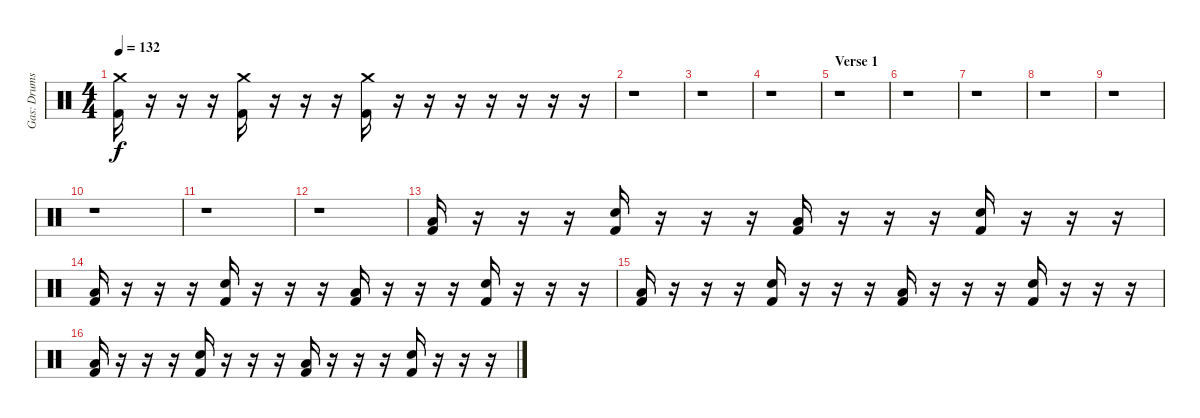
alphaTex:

\track ("Gas: Drums" "Gas: Drums") {instrument percussion}
\staff {score}
\articulation defaults
\ts (4 4)
\tempo 132
\clef neutral
\ks c
("Crash medium (hit)" "Kick (hit) 2").16{dy f} r.16 r.16 r.16 ("Crash medium (hit)" "Kick (hit) 2").16 r.16 r.16 r.16 ("Crash medium (hit)" "Kick (hit) 2").16 r.16 r.16 r.16 r.16 r.16 r.16 r.16 |
r.1 |
r.1 |
r.1 |
\section ("" "Verse 1")
r.1 |
r.1 |
r.1 |
r.1 |
r.1 |
r.1 |
r.1 |
r.1 |
("Low Tom (hit)" "Kick (hit) 2").16 r.16 r.16 r.16 ("Electric Snare (hit)" "Kick (hit) 2").16 r.16 r.16 r.16 ("Low Tom (hit)" "Kick (hit) 2").16 r.16 r.16 r.16 ("Electric Snare (hit)" "Kick (hit) 2").16 r.16 r.16 r.16 |
("Low Tom (hit)" "Kick (hit) 2").16 r.16 r.16 r.16 ("Electric Snare (hit)" "Kick (hit) 2").16 r.16 r.16 r.16 ("Low Tom (hit)" "Kick (hit) 2").16 r.16 r.16 r.16 ("Electric Snare (hit)" "Kick (hit) 2").16 r.16 r.16 r.16 |
("Low Tom (hit)" "Kick (hit) 2").16 r.16 r.16 r.16 ("Electric Snare (hit)" "Kick (hit) 2").16 r.16 r.16 r.16 ("Low Tom (hit)" "Kick (hit) 2").16 r.16 r.16 r.16 ("Electric Snare (hit)" "Kick (hit) 2").16 r.16 r.16 r.16 |
("Low Tom (hit)" "Kick (hit) 2").16 r.16 r.16 r.16 ("Electric Snare (hit)" "Kick (hit) 2").16 r.16 r.16 r.16 ("Low Tom (hit)" "Kick (hit) 2").16 r.16 r.16 r.16 ("Electric Snare (hit)" "Kick (hit) 2").16 r.16 r.16 r.16
